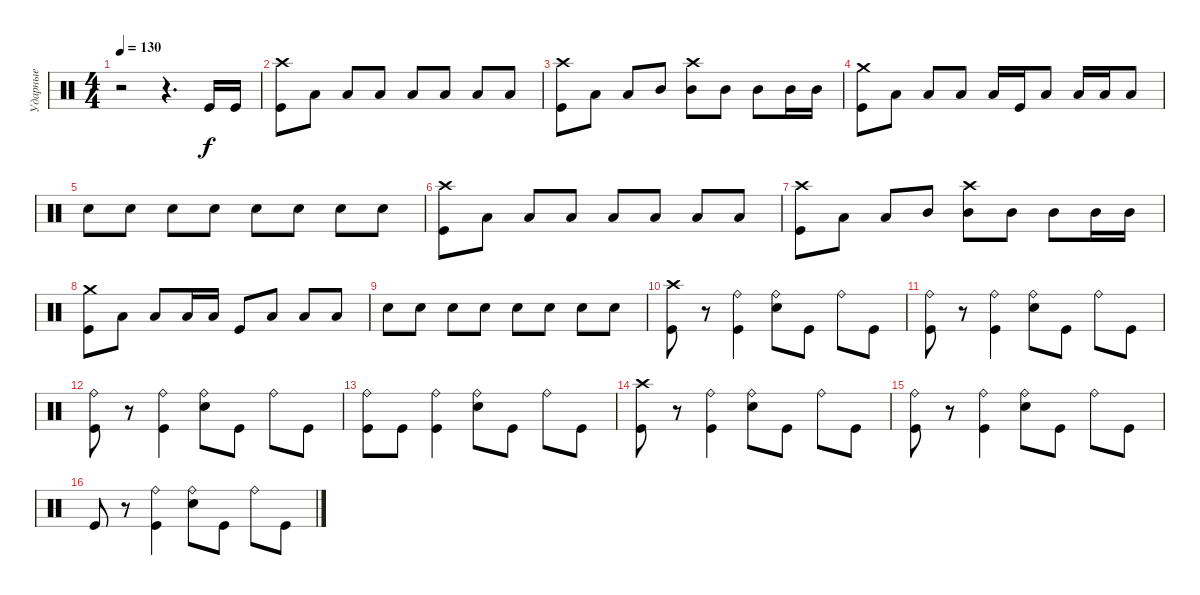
\track ("Ударные" "Ударные") {instrument percussion}
\staff {score}
\articulation defaults
\ts (4 4)
\tempo 130
\clef neutral
\ks c
r.2{dy f} r.4{d} "Kick (hit)".16 "Kick (hit)".16 |
("Crash high (hit)" "Kick (hit)").8 "Low Tom (hit)".8 "Low Tom (hit)".8 "Low Tom (hit)".8 "Low Tom (hit)".8 "Low Tom (hit)".8 "Low Tom (hit)".8 "Low Tom (hit)".8 |
("Crash high (hit)" "Kick (hit)").8 "Low Tom (hit)".8 "Low Tom (hit)".8 "Mid Tom (hit)".8 ("Crash high (hit)" "Mid Tom (hit)").8 "Mid Tom (hit)".8 "Mid Tom (hit)".8 "Mid Tom (hit)".16 "Mid Tom (hit)".16 |
("Crash medium (hit)" "Kick (hit)").8 "Low Tom (hit)".8 "Low Tom (hit)".8 "Low Tom (hit)".8 "Low Tom (hit)".16 "Kick (hit)".16 "Low Tom (hit)".8 "Low Tom (hit)".16 "Low Tom (hit)".16 "Low Tom (hit)".8 |
"Electric Snare (hit)".8 "Electric Snare (hit)".8 "Electric Snare (hit)".8 "Electric Snare (hit)".8 "Electric Snare (hit)".8 "Electric Snare (hit)".8 "Electric Snare (hit)".8 "Electric Snare (hit)".8 |
("Crash high (hit)" "Kick (hit)").8 "Low Tom (hit)".8 "Low Tom (hit)".8 "Low Tom (hit)".8 "Low Tom (hit)".8 "Low Tom (hit)".8 "Low Tom (hit)".8 "Low Tom (hit)".8 |
("Crash high (hit)" "Kick (hit)").8 "Low Tom (hit)".8 "Low Tom (hit)".8 "Mid Tom (hit)".8 ("Crash high (hit)" "Mid Tom (hit)").8 "Mid Tom (hit)".8 "Mid Tom (hit)".8 "Mid Tom (hit)".16 "Mid Tom (hit)".16 |
("Crash medium (hit)" "Kick (hit)").8 "Low Tom (hit)".8 "Low Tom (hit)".8 "Low Tom (hit)".16 "Low Tom (hit)".16 "Kick (hit)".8 "Low Tom (hit)".8 "Low Tom (hit)".8 "Low Tom (hit)".8 |
"Electric Snare (hit)".8 "Electric Snare (hit)".8 "Electric Snare (hit)".8 "Electric Snare (hit)".8 "Electric Snare (hit)".8 "Electric Snare (hit)".8 "Electric Snare (hit)".8 "Electric Snare (hit)".8 |
("Crash high (hit)" "Kick (hit)").8 r.8 ("Ride (bell)" "Kick (hit)").4 ("Ride (bell)" "Electric Snare (hit)").8 "Kick (hit)".8 "Ride (bell)".8 "Kick (hit)".8 |
("Ride (bell)" "Kick (hit)").8 r.8 ("Ride (bell)" "Kick (hit)").4 ("Ride (bell)" "Electric Snare (hit)").8 "Kick (hit)".8 "Ride (bell)".8 "Kick (hit)".8 |
("Ride (bell)" "Kick (hit)").8 r.8 ("Ride (bell)" "Kick (hit)").4 ("Ride (bell)" "Electric Snare (hit)").8 "Kick (hit)".8 "Ride (bell)".8 "Kick (hit)".8 |
("Ride (bell)" "Kick (hit)").8 "Kick (hit)".8 ("Ride (bell)" "Kick (hit)").4 ("Ride (bell)" "Electric Snare (hit)").8 "Kick (hit)".8 "Ride (bell)".8 "Kick (hit)".8 |
("Crash high (hit)" "Kick (hit)").8 r.8 ("Ride (bell)" "Kick (hit)").4 ("Ride (bell)" "Electric Snare (hit)").8 "Kick (hit)".8 "Ride (bell)".8 "Kick (hit)".8 |
("Ride (bell)" "Kick (hit)").8 r.8 ("Ride (bell)" "Kick (hit)").4 ("Ride (bell)" "Electric Snare (hit)").8 "Kick (hit)".8 "Ride (bell)".8 "Kick (hit)".8 |
"Kick (hit)".8 r.8 ("Ride (bell)" "Kick (hit)").4 ("Ride (bell)" "Electric Snare (hit)").8 "Kick (hit)".8 "Ride (bell)".8 "Kick (hit)".8
